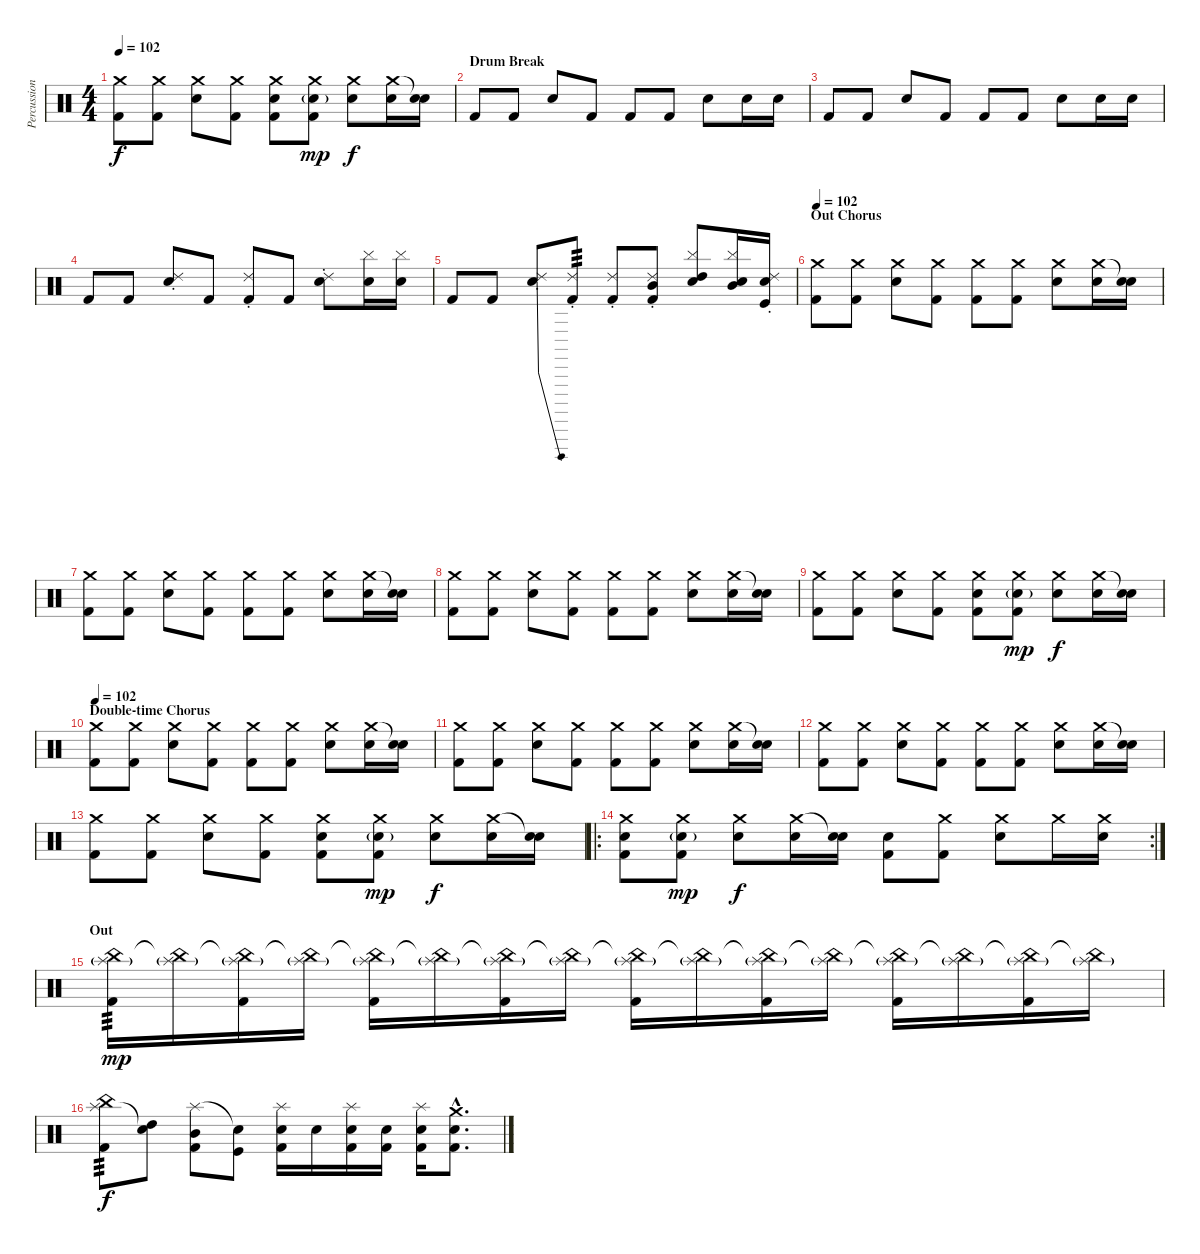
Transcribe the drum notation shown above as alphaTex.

\track ("Percussion" "Percussion") {instrument percussion}
\staff {score}
\articulation defaults
\ts (4 4)
\tempo 102
\clef neutral
\ks c
("Crash medium (hit)" "Kick (hit) 2").8{dy f} ("Crash medium (hit)" "Kick (hit) 2").8 ("Crash medium (hit)" "Snare (hit) 2").8 ("Crash medium (hit)" "Kick (hit) 2"{tr (36 16)}).8 ("Crash medium (hit)" "Snare (hit) 2" "Kick (hit) 2").8 ("Crash medium (hit)" "Snare (hit) 2"{tr (38 16) g} "Kick (hit) 2").8{dy mp} ("Crash medium (hit)" "Snare (hit) 2").8{dy f} ("Crash medium (hit)" "Snare (hit) 2").16 ("Snare (hit)"{t} "Snare (hit) 2").16 |
\section ("" "Drum Break")
"Kick (hit) 2".8 "Kick (hit) 2".8 "Snare (hit) 2".8 "Kick (hit) 2"{tr (36 16)}.8 "Kick (hit) 2".8 "Kick (hit) 2".8 "Snare (hit) 2".8 "Snare (hit) 2".16 "Snare (hit) 2".16 |
"Kick (hit) 2".8 "Kick (hit) 2".8 "Snare (hit) 2".8 "Kick (hit) 2"{tr (36 16)}.8 "Kick (hit) 2".8 "Kick (hit) 2".8 "Snare (hit) 2".8 "Snare (hit) 2".16 "Snare (hit) 2".16 |
"Kick (hit) 2".8 "Kick (hit) 2".8 ("Ride (choke) 2" "Snare (hit) 2").8 "Kick (hit) 2"{tr (36 16)}.8 ("Ride (choke) 2" "Kick (hit) 2").8 "Kick (hit) 2".8 ("Ride (choke) 2" "Snare (hit) 2").8 ("Cymbal (hit)" "Snare (hit) 2").16 ("Cymbal (hit)" "Snare (hit) 2").16 |
"Kick (hit) 2".8 "Kick (hit) 2".8 ("Ride (choke) 2"{be (bend 0 0 60 4)} "Snare (hit) 2").8 ("Ride (choke) 2" "Kick (hit) 2"{tr (36 16)}).8{tp 3} ("Ride (choke) 2" "Kick (hit) 2").8 ("Mid Tom (hit)"{tr (47 16)} "Ride (choke) 2" "Kick (hit) 2").8 ("High Tom (hit)" "Cymbal (hit)" "Snare (hit) 2").8 ("Mid Tom (hit)" "Cymbal (hit)" "Snare (hit) 2").16 ("Kick (hit)" "Ride (choke) 2" "Snare (hit) 2").16 |
\section ("" "Out Chorus")
\tempo 102
("Crash medium (hit)" "Kick (hit) 2").8 ("Crash medium (hit)" "Kick (hit) 2").8 ("Crash medium (hit)" "Snare (hit) 2").8 ("Crash medium (hit)" "Kick (hit) 2"{tr (36 16)}).8 ("Crash medium (hit)" "Kick (hit) 2").8 ("Crash medium (hit)" "Kick (hit) 2").8 ("Crash medium (hit)" "Snare (hit) 2").8 ("Crash medium (hit)" "Snare (hit) 2").16 ("Snare (hit)"{t} "Snare (hit) 2").16 |
("Crash medium (hit)" "Kick (hit) 2").8 ("Crash medium (hit)" "Kick (hit) 2").8 ("Crash medium (hit)" "Snare (hit) 2").8 ("Crash medium (hit)" "Kick (hit) 2"{tr (36 16)}).8 ("Crash medium (hit)" "Kick (hit) 2").8 ("Crash medium (hit)" "Kick (hit) 2").8 ("Crash medium (hit)" "Snare (hit) 2").8 ("Crash medium (hit)" "Snare (hit) 2").16 ("Snare (hit)"{t} "Snare (hit) 2").16 |
("Crash medium (hit)" "Kick (hit) 2").8 ("Crash medium (hit)" "Kick (hit) 2").8 ("Crash medium (hit)" "Snare (hit) 2").8 ("Crash medium (hit)" "Kick (hit) 2"{tr (36 16)}).8 ("Crash medium (hit)" "Kick (hit) 2").8 ("Crash medium (hit)" "Kick (hit) 2").8 ("Crash medium (hit)" "Snare (hit) 2").8 ("Crash medium (hit)" "Snare (hit) 2").16 ("Snare (hit)"{t} "Snare (hit) 2").16 |
("Crash medium (hit)" "Kick (hit) 2").8 ("Crash medium (hit)" "Kick (hit) 2").8 ("Crash medium (hit)" "Snare (hit) 2").8 ("Crash medium (hit)" "Kick (hit) 2"{tr (36 16)}).8 ("Crash medium (hit)" "Snare (hit) 2" "Kick (hit) 2").8 ("Crash medium (hit)" "Snare (hit) 2"{tr (38 16) g} "Kick (hit) 2").8{dy mp} ("Crash medium (hit)" "Snare (hit) 2").8{dy f} ("Crash medium (hit)" "Snare (hit) 2").16 ("Snare (hit)"{t} "Snare (hit) 2").16 |
\section ("" "Double-time Chorus")
\tempo 102
("Crash medium (hit)" "Kick (hit) 2").8 ("Crash medium (hit)" "Kick (hit) 2").8 ("Crash medium (hit)" "Snare (hit) 2").8 ("Crash medium (hit)" "Kick (hit) 2"{tr (36 16)}).8 ("Crash medium (hit)" "Kick (hit) 2").8 ("Crash medium (hit)" "Kick (hit) 2").8 ("Crash medium (hit)" "Snare (hit) 2").8 ("Crash medium (hit)" "Snare (hit) 2").16 ("Snare (hit)"{t} "Snare (hit) 2").16 |
("Crash medium (hit)" "Kick (hit) 2").8 ("Crash medium (hit)" "Kick (hit) 2").8 ("Crash medium (hit)" "Snare (hit) 2").8 ("Crash medium (hit)" "Kick (hit) 2"{tr (36 16)}).8 ("Crash medium (hit)" "Kick (hit) 2").8 ("Crash medium (hit)" "Kick (hit) 2").8 ("Crash medium (hit)" "Snare (hit) 2").8 ("Crash medium (hit)" "Snare (hit) 2").16 ("Snare (hit)"{t} "Snare (hit) 2").16 |
("Crash medium (hit)" "Kick (hit) 2").8 ("Crash medium (hit)" "Kick (hit) 2").8 ("Crash medium (hit)" "Snare (hit) 2").8 ("Crash medium (hit)" "Kick (hit) 2"{tr (36 16)}).8 ("Crash medium (hit)" "Kick (hit) 2").8 ("Crash medium (hit)" "Kick (hit) 2").8 ("Crash medium (hit)" "Snare (hit) 2").8 ("Crash medium (hit)" "Snare (hit) 2").16 ("Snare (hit)"{t} "Snare (hit) 2").16 |
("Crash medium (hit)" "Kick (hit) 2").8 ("Crash medium (hit)" "Kick (hit) 2").8 ("Crash medium (hit)" "Snare (hit) 2").8 ("Crash medium (hit)" "Kick (hit) 2"{tr (36 16)}).8 ("Crash medium (hit)" "Snare (hit) 2" "Kick (hit) 2").8 ("Crash medium (hit)" "Snare (hit) 2"{tr (38 16) g} "Kick (hit) 2").8{dy mp} ("Crash medium (hit)" "Snare (hit) 2").8{dy f} ("Crash medium (hit)" "Snare (hit) 2").16 ("Snare (hit)"{t} "Snare (hit) 2").16 |
\ro
\rc 2
("Crash medium (hit)" "Snare (hit) 2" "Kick (hit) 2").8 ("Crash medium (hit)" "Snare (hit) 2"{tr (38 16) g} "Kick (hit) 2").8{dy mp} ("Crash medium (hit)" "Snare (hit) 2").8{dy f} ("Crash medium (hit)" "Snare (hit) 2").16 ("Snare (hit)"{t} "Snare (hit) 2").16 ("Snare (hit) 2"{tr (38 16)} "Kick (hit) 2").8 ("Crash medium (hit)" "Kick (hit) 2").8 ("Crash medium (hit)" "Snare (hit) 2").8 "Crash medium (hit)".16 ("Crash medium (hit)" "Snare (hit) 2").16 |
\section ("" "Out")
("Splash (hit)"{g} "China (hit)" "Kick (hit) 2").16{tp 3 dy mp} ("Splash (hit)"{g} "China (hit)"{t}).16 ("Splash (hit)"{g} "China (hit)"{t} "Kick (hit) 2").16 ("Splash (hit)"{g} "China (hit)"{t}).16 ("Splash (hit)"{g} "China (hit)"{t} "Kick (hit) 2").16 ("Splash (hit)"{g} "China (hit)"{t}).16 ("Splash (hit)"{g} "China (hit)"{t} "Kick (hit) 2").16 ("Splash (hit)"{g} "China (hit)"{t}).16 ("Splash (hit)"{g} "China (hit)"{t} "Kick (hit) 2").16 ("Splash (hit)"{g} "China (hit)"{t}).16 ("Splash (hit)"{g} "China (hit)"{t} "Kick (hit) 2").16 ("Splash (hit)"{g} "China (hit)"{t}).16 ("Splash (hit)"{g} "China (hit)"{t} "Kick (hit) 2").16 ("Splash (hit)"{g} "China (hit)"{t}).16 ("Splash (hit)"{g} "China (hit)"{t} "Kick (hit) 2").16 ("Splash (hit)"{g} "China (hit)"{t}).16 |
("Splash (hit)" "China (hit)" "Kick (hit) 2").8{tp 3 dy f} ("Snare (hit)"{t} "High Tom (hit)").8 ("Splash (hit)" "Mid Tom (hit)" "Kick (hit) 2").8 ("Snare (hit)"{t} "Kick (hit)").8 ("Splash (hit)" "Snare (hit) 2" "Kick (hit) 2").16 "Snare (hit) 2".16 ("Splash (hit)" "Snare (hit) 2" "Kick (hit) 2").16 ("Snare (hit) 2" "Kick (hit) 2").16 ("Splash (hit)" "Snare (hit) 2" "Kick (hit) 2").16 ("Crash medium (hit)"{hac} "Snare (hit) 2"{hac} "Kick (hit) 2"{hac}).8{d}
